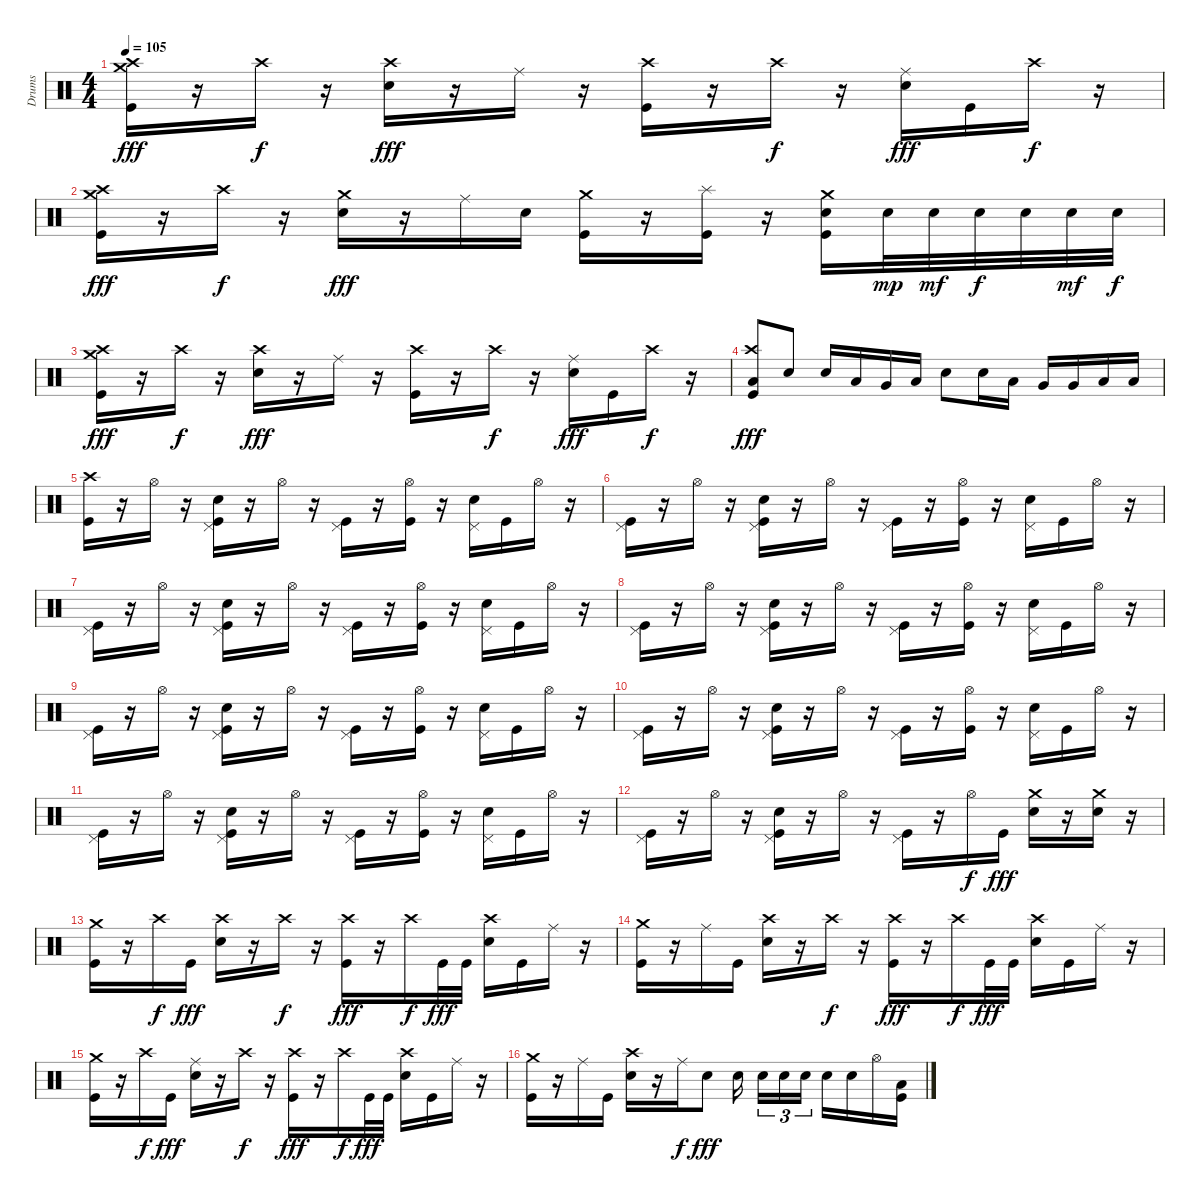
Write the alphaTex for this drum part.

\track ("Drums" "Drums") {instrument percussion}
\staff {score}
\articulation defaults
\ts (4 4)
\tempo 105
\clef neutral
\ks c
("Crash medium (hit)" "Kick (hit)" "Crash high (hit)").16{dy fff} r.16 "Crash high (hit)".16{dy f} r.16 ("Crash high (hit)" "Electric Snare (hit)").16{dy fff} r.16 "Ride (middle)".16 r.16 ("Crash high (hit)" "Kick (hit)").16 r.16 "Crash high (hit)".16{dy f} r.16 ("Ride (middle)" "Electric Snare (hit)").16{dy fff} "Kick (hit)".16 "Crash high (hit)".16{dy f} r.16 |
("Crash medium (hit)" "Kick (hit)" "Crash high (hit)").16{dy fff} r.16 "Crash high (hit)".16{dy f} r.16 ("Crash medium (hit)" "Electric Snare (hit)").16{dy fff} r.16 "Ride (middle)".16 "Electric Snare (hit)".16 ("Crash medium (hit)" "Kick (hit)").16 r.16 ("Splash (hit)" "Kick (hit)").16 r.16 ("Crash medium (hit)" "Electric Snare (hit)" "Kick (hit)").16 "Electric Snare (hit)".32{dy mp} "Electric Snare (hit)".32{dy mf} "Electric Snare (hit)".32{dy f} "Electric Snare (hit)".32 "Electric Snare (hit)".32{dy mf} "Electric Snare (hit)".32{dy f} |
("Crash medium (hit)" "Kick (hit)" "Crash high (hit)").16{dy fff} r.16 "Crash high (hit)".16{dy f} r.16 ("Crash high (hit)" "Electric Snare (hit)").16{dy fff} r.16 "Ride (middle)".16 r.16 ("Crash high (hit)" "Kick (hit)").16 r.16 "Crash high (hit)".16{dy f} r.16 ("Ride (middle)" "Electric Snare (hit)").16{dy fff} "Kick (hit)".16 "Crash high (hit)".16{dy f} r.16 |
("Crash high (hit)" "Kick (hit)" "Low Tom (hit)").8{dy fff} "Electric Snare (hit)".8 "Electric Snare (hit)".16 "Low Tom (hit)".16 "Very Low Tom (hit)".16 "Low Floor Tom (hit)".16 "Electric Snare (hit)".8 "Electric Snare (hit)".16 "Low Tom (hit)".16 "Very Low Tom (hit)".16 "Very Low Tom (hit)".16 "Low Floor Tom (hit)".16 "Low Floor Tom (hit)".16 |
("Crash high (hit)" "Kick (hit)").16 r.16 "Hi-Hat (open)".16 r.16 ("Pedal Hi-Hat (hit)" "Electric Snare (hit)" "Kick (hit)").16 r.16 "Hi-Hat (open)".16 r.16 ("Pedal Hi-Hat (hit)" "Kick (hit)").16 r.16 ("Hi-Hat (open)" "Kick (hit)").16 r.16 ("Pedal Hi-Hat (hit)" "Electric Snare (hit)").16 "Kick (hit)".16 "Hi-Hat (open)".16 r.16 |
("Pedal Hi-Hat (hit)" "Kick (hit)").16 r.16 "Hi-Hat (open)".16 r.16 ("Pedal Hi-Hat (hit)" "Electric Snare (hit)" "Kick (hit)").16 r.16 "Hi-Hat (open)".16 r.16 ("Pedal Hi-Hat (hit)" "Kick (hit)").16 r.16 ("Hi-Hat (open)" "Kick (hit)").16 r.16 ("Pedal Hi-Hat (hit)" "Electric Snare (hit)").16 "Kick (hit)".16 "Hi-Hat (open)".16 r.16 |
("Pedal Hi-Hat (hit)" "Kick (hit)").16 r.16 "Hi-Hat (open)".16 r.16 ("Pedal Hi-Hat (hit)" "Electric Snare (hit)" "Kick (hit)").16 r.16 "Hi-Hat (open)".16 r.16 ("Pedal Hi-Hat (hit)" "Kick (hit)").16 r.16 ("Hi-Hat (open)" "Kick (hit)").16 r.16 ("Pedal Hi-Hat (hit)" "Electric Snare (hit)").16 "Kick (hit)".16 "Hi-Hat (open)".16 r.16 |
("Pedal Hi-Hat (hit)" "Kick (hit)").16 r.16 "Hi-Hat (open)".16 r.16 ("Pedal Hi-Hat (hit)" "Electric Snare (hit)" "Kick (hit)").16 r.16 "Hi-Hat (open)".16 r.16 ("Pedal Hi-Hat (hit)" "Kick (hit)").16 r.16 ("Hi-Hat (open)" "Kick (hit)").16 r.16 ("Pedal Hi-Hat (hit)" "Electric Snare (hit)").16 "Kick (hit)".16 "Hi-Hat (open)".16 r.16 |
("Pedal Hi-Hat (hit)" "Kick (hit)").16 r.16 "Hi-Hat (open)".16 r.16 ("Pedal Hi-Hat (hit)" "Electric Snare (hit)" "Kick (hit)").16 r.16 "Hi-Hat (open)".16 r.16 ("Pedal Hi-Hat (hit)" "Kick (hit)").16 r.16 ("Hi-Hat (open)" "Kick (hit)").16 r.16 ("Pedal Hi-Hat (hit)" "Electric Snare (hit)").16 "Kick (hit)".16 "Hi-Hat (open)".16 r.16 |
("Pedal Hi-Hat (hit)" "Kick (hit)").16 r.16 "Hi-Hat (open)".16 r.16 ("Pedal Hi-Hat (hit)" "Electric Snare (hit)" "Kick (hit)").16 r.16 "Hi-Hat (open)".16 r.16 ("Pedal Hi-Hat (hit)" "Kick (hit)").16 r.16 ("Hi-Hat (open)" "Kick (hit)").16 r.16 ("Pedal Hi-Hat (hit)" "Electric Snare (hit)").16 "Kick (hit)".16 "Hi-Hat (open)".16 r.16 |
("Pedal Hi-Hat (hit)" "Kick (hit)").16 r.16 "Hi-Hat (open)".16 r.16 ("Pedal Hi-Hat (hit)" "Electric Snare (hit)" "Kick (hit)").16 r.16 "Hi-Hat (open)".16 r.16 ("Pedal Hi-Hat (hit)" "Kick (hit)").16 r.16 ("Hi-Hat (open)" "Kick (hit)").16 r.16 ("Pedal Hi-Hat (hit)" "Electric Snare (hit)").16 "Kick (hit)".16 "Hi-Hat (open)".16 r.16 |
("Pedal Hi-Hat (hit)" "Kick (hit)").16 r.16 "Hi-Hat (open)".16 r.16 ("Pedal Hi-Hat (hit)" "Electric Snare (hit)" "Kick (hit)").16 r.16 "Hi-Hat (open)".16 r.16 ("Pedal Hi-Hat (hit)" "Kick (hit)").16 r.16 "Hi-Hat (open)".16{dy f} "Kick (hit)".16{dy fff} ("Crash medium (hit)" "Electric Snare (hit)").16 r.16 ("Crash medium (hit)" "Electric Snare (hit)").16 r.16 |
("Crash medium (hit)" "Kick (hit)").16 r.16 "Crash high (hit)".16{dy f} "Kick (hit)".16{dy fff} ("Crash high (hit)" "Electric Snare (hit)").16 r.16 "Crash high (hit)".16{dy f} r.16 ("Crash high (hit)" "Kick (hit)").16{dy fff} r.16 "Crash high (hit)".16{dy f} "Kick (hit)".32{dy fff} "Kick (hit)".32 ("Crash high (hit)" "Electric Snare (hit)").16 "Kick (hit)".16 "Ride (middle)".16 r.16 |
("Crash medium (hit)" "Kick (hit)").16 r.16 "Ride (middle)".16 "Kick (hit)".16 ("Crash high (hit)" "Electric Snare (hit)").16 r.16 "Crash high (hit)".16{dy f} r.16 ("Crash high (hit)" "Kick (hit)").16{dy fff} r.16 "Crash high (hit)".16{dy f} "Kick (hit)".32{dy fff} "Kick (hit)".32 ("Crash high (hit)" "Electric Snare (hit)").16 "Kick (hit)".16 "Ride (middle)".16 r.16 |
("Crash medium (hit)" "Kick (hit)").16 r.16 "Crash high (hit)".16{dy f} "Kick (hit)".16{dy fff} ("Ride (middle)" "Electric Snare (hit)").16 r.16 "Crash high (hit)".16{dy f} r.16 ("Crash high (hit)" "Kick (hit)").16{dy fff} r.16 "Crash high (hit)".16{dy f} "Kick (hit)".32{dy fff} "Kick (hit)".32 ("Crash high (hit)" "Electric Snare (hit)").16 "Kick (hit)".16 "Ride (middle)".16 r.16 |
("Crash medium (hit)" "Kick (hit)").16 r.16 "Ride (middle)".16 "Kick (hit)".16 ("Crash high (hit)" "Electric Snare (hit)").16 r.16 "Ride (middle)".16{dy f} "Electric Snare (hit)".8{dy fff} "Electric Snare (hit)".16 "Electric Snare (hit)".16{tu (3 2)} "Electric Snare (hit)".16{tu (3 2)} "Electric Snare (hit)".16{tu (3 2)} "Electric Snare (hit)".16 "Electric Snare (hit)".16 "Hi-Hat (open)".16 ("Low Floor Tom (hit)" "Kick (hit)").16
